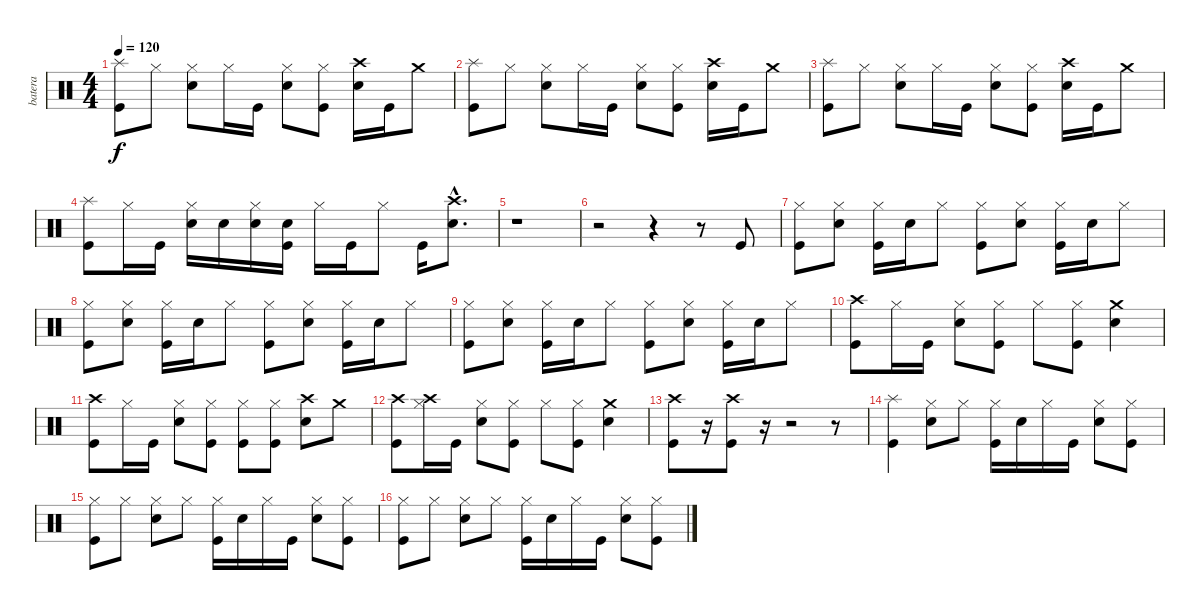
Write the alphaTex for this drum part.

\track ("batera" "batera") {instrument percussion}
\staff {score}
\articulation defaults
\ts (4 4)
\tempo 120
\clef neutral
\ks c
("Splash (hit)" "Kick (hit)").8{dy f} "Hi-Hat (closed)".8 ("Hi-Hat (closed)" "Snare (hit) 2").8 "Hi-Hat (closed)".16 "Kick (hit)".16 ("Hi-Hat (closed)" "Snare (hit) 2").8 ("Hi-Hat (closed)" "Kick (hit)").8 ("Crash high (hit)" "Snare (hit) 2").16 "Kick (hit)".16 "Crash medium (hit)".8 |
("Splash (hit)" "Kick (hit)").8 "Hi-Hat (closed)".8 ("Hi-Hat (closed)" "Snare (hit) 2").8 "Hi-Hat (closed)".16 "Kick (hit)".16 ("Hi-Hat (closed)" "Snare (hit) 2").8 ("Hi-Hat (closed)" "Kick (hit)").8 ("Crash high (hit)" "Snare (hit) 2").16 "Kick (hit)".16 "Crash medium (hit)".8 |
("Splash (hit)" "Kick (hit)").8 "Hi-Hat (closed)".8 ("Hi-Hat (closed)" "Snare (hit) 2").8 "Hi-Hat (closed)".16 "Kick (hit)".16 ("Hi-Hat (closed)" "Snare (hit) 2").8 ("Hi-Hat (closed)" "Kick (hit)").8 ("Crash high (hit)" "Snare (hit) 2").16 "Kick (hit)".16 "Crash medium (hit)".8 |
("Splash (hit)" "Kick (hit)").8 "Hi-Hat (closed)".16 "Kick (hit)".16 ("Hi-Hat (closed)" "Snare (hit) 2").16 "Snare (hit) 2".16 ("Hi-Hat (closed)" "Snare (hit) 2").16 ("Snare (hit) 2" "Kick (hit)").16 "Hi-Hat (closed)".16 "Kick (hit)".16 "Hi-Hat (closed)".8 "Kick (hit)".16 ("Crash high (hit)"{hac} "Snare (hit) 2"{hac}).8{d} |
r.1 |
r.2 r.4 r.8 "Kick (hit)".8 |
("Hi-Hat (closed)" "Kick (hit)").8 ("Hi-Hat (closed)" "Snare (hit) 2").8 ("Hi-Hat (closed)" "Kick (hit)").16 "Snare (hit) 2".16 "Hi-Hat (closed)".8 ("Hi-Hat (closed)" "Kick (hit)").8 ("Hi-Hat (closed)" "Snare (hit) 2").8 ("Hi-Hat (closed)" "Kick (hit)").16 "Snare (hit) 2".16 "Hi-Hat (closed)".8 |
("Hi-Hat (closed)" "Kick (hit)").8 ("Hi-Hat (closed)" "Snare (hit) 2").8 ("Hi-Hat (closed)" "Kick (hit)").16 "Snare (hit) 2".16 "Hi-Hat (closed)".8 ("Hi-Hat (closed)" "Kick (hit)").8 ("Hi-Hat (closed)" "Snare (hit) 2").8 ("Hi-Hat (closed)" "Kick (hit)").16 "Snare (hit) 2".16 "Hi-Hat (closed)".8 |
("Hi-Hat (closed)" "Kick (hit)").8 ("Hi-Hat (closed)" "Snare (hit) 2").8 ("Hi-Hat (closed)" "Kick (hit)").16 "Snare (hit) 2".16 "Hi-Hat (closed)".8 ("Hi-Hat (closed)" "Kick (hit)").8 ("Hi-Hat (closed)" "Snare (hit) 2").8 ("Hi-Hat (closed)" "Kick (hit)").16 "Snare (hit) 2".16 "Hi-Hat (closed)".8 |
("Crash high (hit)" "Kick (hit)").8 "Hi-Hat (closed)".16 "Kick (hit)".16 ("Hi-Hat (closed)" "Snare (hit) 2").8 ("Hi-Hat (closed)" "Kick (hit)").8 "Hi-Hat (closed)".8 ("Hi-Hat (closed)" "Kick (hit)").8 ("Crash medium (hit)" "Snare (hit) 2").4 |
("Crash high (hit)" "Kick (hit)").8 "Hi-Hat (closed)".16 "Kick (hit)".16 ("Hi-Hat (closed)" "Snare (hit) 2").8 ("Hi-Hat (closed)" "Kick (hit)").8 ("Hi-Hat (closed)" "Kick (hit)").8 ("Hi-Hat (closed)" "Kick (hit)").8 ("Crash high (hit)" "Snare (hit) 2").8 "Crash medium (hit)".8 |
("Crash high (hit)" "Kick (hit)").8 ("Crash high (hit)" "Hi-Hat (closed)").16 "Kick (hit)".16 ("Hi-Hat (closed)" "Snare (hit) 2").8 ("Hi-Hat (closed)" "Kick (hit)").8 "Hi-Hat (closed)".8 ("Hi-Hat (closed)" "Kick (hit)").8 ("Crash medium (hit)" "Snare (hit) 2").4 |
("Crash high (hit)" "Kick (hit)").8 r.16 ("Crash high (hit)" "Kick (hit)").8 r.16 r.2 r.8 |
("Splash (hit)" "Kick (hit)").4 ("Hi-Hat (closed)" "Snare (hit) 2").8 "Hi-Hat (closed)".8 ("Hi-Hat (closed)" "Kick (hit)").16 "Snare (hit) 2".16 "Hi-Hat (closed)".16 "Kick (hit)".16 ("Hi-Hat (closed)" "Snare (hit) 2").8 ("Hi-Hat (closed)" "Kick (hit)").8 |
("Hi-Hat (closed)" "Kick (hit)").8 "Hi-Hat (closed)".8 ("Hi-Hat (closed)" "Snare (hit) 2").8 "Hi-Hat (closed)".8 ("Hi-Hat (closed)" "Kick (hit)").16 "Snare (hit) 2".16 "Hi-Hat (closed)".16 "Kick (hit)".16 ("Hi-Hat (closed)" "Snare (hit) 2").8 ("Hi-Hat (closed)" "Kick (hit)").8 |
("Hi-Hat (closed)" "Kick (hit)").8 "Hi-Hat (closed)".8 ("Hi-Hat (closed)" "Snare (hit) 2").8 "Hi-Hat (closed)".8 ("Hi-Hat (closed)" "Kick (hit)").16 "Snare (hit) 2".16 "Hi-Hat (closed)".16 "Kick (hit)".16 ("Hi-Hat (closed)" "Snare (hit) 2").8 ("Hi-Hat (closed)" "Kick (hit)").8
